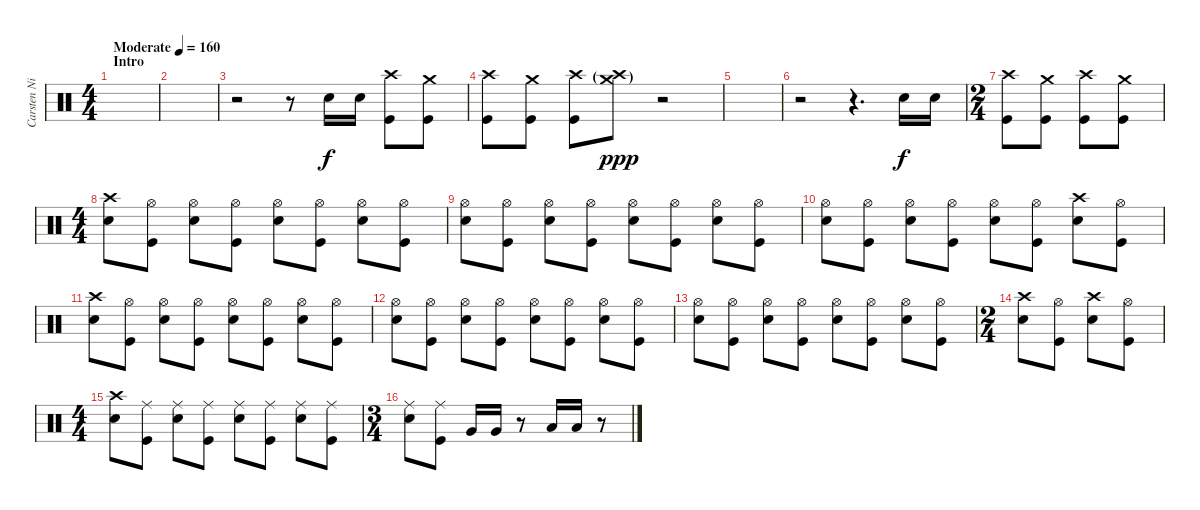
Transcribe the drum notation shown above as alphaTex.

\track ("Carsten Nielsen" "Carsten Ni") {instrument percussion}
\staff {score}
\articulation defaults
\ts (4 4)
\section ("" "Intro")
\tempo (160 "Moderate")
\clef neutral
\ks c
|
|
r.2 r.8 "Electric Snare (hit)".16 "Electric Snare (hit)".16 ("Crash high (hit)" "Kick (hit)").8 ("Crash medium (hit)" "Kick (hit)").8 |
("Crash high (hit)" "Kick (hit)").8 ("Crash medium (hit)" "Kick (hit)").8 ("Crash high (hit)" "Kick (hit)").8 ("Crash high (hit)"{g} "Crash medium (hit)"{g}).8{dy ppp} r.2 |
|
r.2 r.4{d} "Electric Snare (hit)".16{dy f} "Electric Snare (hit)".16 |
\ts (2 4)
("Crash high (hit)" "Kick (hit)").8 ("Crash medium (hit)" "Kick (hit)").8 ("Crash high (hit)" "Kick (hit)").8 ("Crash medium (hit)" "Kick (hit)").8 |
\ts (4 4)
("Crash high (hit)" "Electric Snare (hit)").8 ("Hi-Hat (open)" "Kick (hit)").8 ("Hi-Hat (open)" "Electric Snare (hit)").8 ("Hi-Hat (open)" "Kick (hit)").8 ("Hi-Hat (open)" "Electric Snare (hit)").8 ("Hi-Hat (open)" "Kick (hit)").8 ("Hi-Hat (open)" "Electric Snare (hit)").8 ("Hi-Hat (open)" "Kick (hit)").8 |
("Hi-Hat (open)" "Electric Snare (hit)").8 ("Hi-Hat (open)" "Kick (hit)").8 ("Hi-Hat (open)" "Electric Snare (hit)").8 ("Hi-Hat (open)" "Kick (hit)").8 ("Hi-Hat (open)" "Electric Snare (hit)").8 ("Hi-Hat (open)" "Kick (hit)").8 ("Hi-Hat (open)" "Electric Snare (hit)").8 ("Hi-Hat (open)" "Kick (hit)").8 |
("Hi-Hat (open)" "Electric Snare (hit)").8 ("Hi-Hat (open)" "Kick (hit)").8 ("Hi-Hat (open)" "Electric Snare (hit)").8 ("Hi-Hat (open)" "Kick (hit)").8 ("Hi-Hat (open)" "Electric Snare (hit)").8 ("Hi-Hat (open)" "Kick (hit)").8 ("Crash high (hit)" "Electric Snare (hit)").8 ("Hi-Hat (open)" "Kick (hit)").8 |
("Crash high (hit)" "Electric Snare (hit)").8 ("Hi-Hat (open)" "Kick (hit)").8 ("Hi-Hat (open)" "Electric Snare (hit)").8 ("Hi-Hat (open)" "Kick (hit)").8 ("Hi-Hat (open)" "Electric Snare (hit)").8 ("Hi-Hat (open)" "Kick (hit)").8 ("Hi-Hat (open)" "Electric Snare (hit)").8 ("Hi-Hat (open)" "Kick (hit)").8 |
("Hi-Hat (open)" "Electric Snare (hit)").8 ("Hi-Hat (open)" "Kick (hit)").8 ("Hi-Hat (open)" "Electric Snare (hit)").8 ("Hi-Hat (open)" "Kick (hit)").8 ("Hi-Hat (open)" "Electric Snare (hit)").8 ("Hi-Hat (open)" "Kick (hit)").8 ("Hi-Hat (open)" "Electric Snare (hit)").8 ("Hi-Hat (open)" "Kick (hit)").8 |
("Hi-Hat (open)" "Electric Snare (hit)").8 ("Hi-Hat (open)" "Kick (hit)").8 ("Hi-Hat (open)" "Electric Snare (hit)").8 ("Hi-Hat (open)" "Kick (hit)").8 ("Hi-Hat (open)" "Electric Snare (hit)").8 ("Hi-Hat (open)" "Kick (hit)").8 ("Hi-Hat (open)" "Electric Snare (hit)").8 ("Hi-Hat (open)" "Kick (hit)").8 |
\ts (2 4)
("Crash high (hit)" "Electric Snare (hit)").8 ("Hi-Hat (open)" "Kick (hit)").8 ("Crash high (hit)" "Electric Snare (hit)").8 ("Hi-Hat (open)" "Kick (hit)").8 |
\ts (4 4)
("Crash high (hit)" "Electric Snare (hit)").8 ("Ride (middle)" "Kick (hit)").8 ("Ride (middle)" "Electric Snare (hit)").8 ("Ride (middle)" "Kick (hit)").8 ("Ride (middle)" "Electric Snare (hit)").8 ("Ride (middle)" "Kick (hit)").8 ("Ride (middle)" "Electric Snare (hit)").8 ("Ride (middle)" "Kick (hit)").8 |
\ts (3 4)
("Ride (middle)" "Electric Snare (hit)").8 ("Ride (middle)" "Kick (hit)").8 "Very Low Tom (hit)".16 "Very Low Tom (hit)".16 r.8 "Low Floor Tom (hit)".16 "Low Floor Tom (hit)".16 r.8
